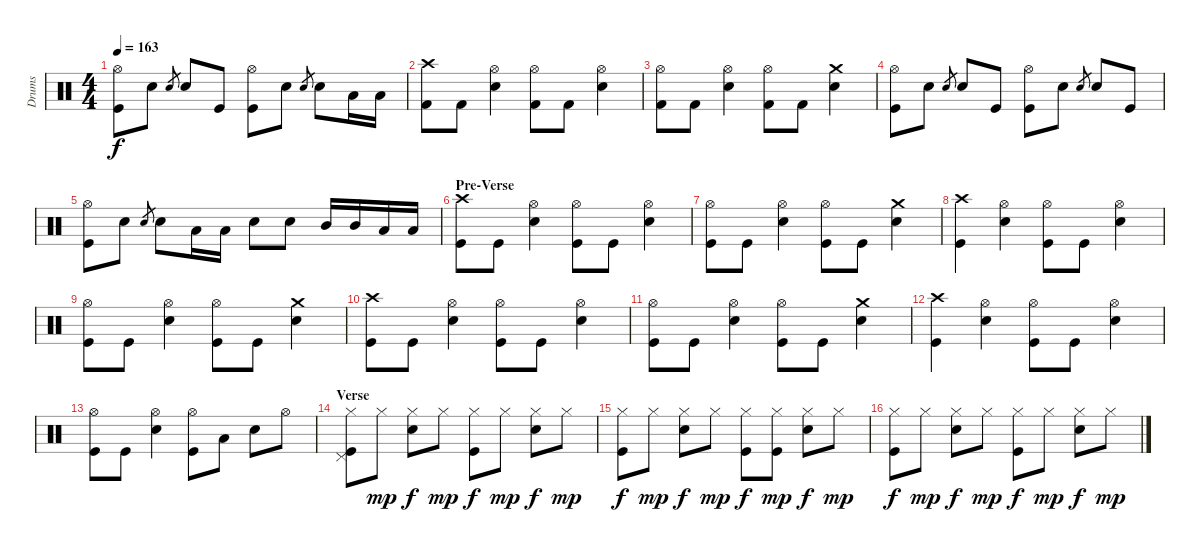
\track ("Drums" "Drums") {instrument percussion}
\staff {score}
\articulation defaults
\ts (4 4)
\tempo 163
\clef neutral
\ks c
("Hi-Hat (open)" "Kick (hit)").8{dy f} "Electric Snare (hit)".8 "Electric Snare (hit)".8{gr} "Electric Snare (hit)".8 "Kick (hit)".8 ("Hi-Hat (open)" "Kick (hit)").8 "Electric Snare (hit)".8 "Electric Snare (hit)".8{gr} "Electric Snare (hit)".8 "Low Tom (hit)".16 "Low Tom (hit)".16 |
("Crash high (hit)" "Kick (hit) 2").8 "Kick (hit) 2".8 ("Hi-Hat (open)" "Electric Snare (hit)").4 ("Hi-Hat (open)" "Kick (hit) 2").8 "Kick (hit) 2".8 ("Hi-Hat (open)" "Electric Snare (hit)").4 |
("Hi-Hat (open)" "Kick (hit) 2").8 "Kick (hit) 2".8 ("Hi-Hat (open)" "Electric Snare (hit)").4 ("Hi-Hat (open)" "Kick (hit) 2").8 "Kick (hit) 2".8 ("Crash medium (hit)" "Electric Snare (hit)").4 |
("Hi-Hat (open)" "Kick (hit)").8 "Electric Snare (hit)".8 "Electric Snare (hit)".8{gr} "Electric Snare (hit)".8 "Kick (hit)".8 ("Hi-Hat (open)" "Kick (hit)").8 "Electric Snare (hit)".8 "Electric Snare (hit)".8{gr} "Electric Snare (hit)".8 "Kick (hit)".8 |
("Hi-Hat (open)" "Kick (hit)").8 "Electric Snare (hit)".8 "Electric Snare (hit)".8{gr} "Electric Snare (hit)".8 "Low Tom (hit)".16 "Low Tom (hit)".16 "Electric Snare (hit)".8 "Electric Snare (hit)".8 "Mid Tom (hit)".16 "Mid Tom (hit)".16 "Low Tom (hit)".16 "Low Tom (hit)".16 |
\section ("" "Pre-Verse")
("Crash high (hit)" "Kick (hit)").8 "Kick (hit)".8 ("Hi-Hat (open)" "Electric Snare (hit)").4 ("Hi-Hat (open)" "Kick (hit)").8 "Kick (hit)".8 ("Hi-Hat (open)" "Electric Snare (hit)").4 |
("Hi-Hat (open)" "Kick (hit)").8 "Kick (hit)".8 ("Hi-Hat (open)" "Electric Snare (hit)").4 ("Hi-Hat (open)" "Kick (hit)").8 "Kick (hit)".8 ("Crash medium (hit)" "Electric Snare (hit)").4 |
("Crash high (hit)" "Kick (hit)").4 ("Hi-Hat (open)" "Electric Snare (hit)").4 ("Hi-Hat (open)" "Kick (hit)").8 "Kick (hit)".8 ("Hi-Hat (open)" "Electric Snare (hit)").4 |
("Hi-Hat (open)" "Kick (hit)").8 "Kick (hit)".8 ("Hi-Hat (open)" "Electric Snare (hit)").4 ("Hi-Hat (open)" "Kick (hit)").8 "Kick (hit)".8 ("Crash medium (hit)" "Electric Snare (hit)").4 |
("Crash high (hit)" "Kick (hit)").8 "Kick (hit)".8 ("Hi-Hat (open)" "Electric Snare (hit)").4 ("Hi-Hat (open)" "Kick (hit)").8 "Kick (hit)".8 ("Hi-Hat (open)" "Electric Snare (hit)").4 |
("Hi-Hat (open)" "Kick (hit)").8 "Kick (hit)".8 ("Hi-Hat (open)" "Electric Snare (hit)").4 ("Hi-Hat (open)" "Kick (hit)").8 "Kick (hit)".8 ("Crash medium (hit)" "Electric Snare (hit)").4 |
("Crash high (hit)" "Kick (hit)").4 ("Hi-Hat (open)" "Electric Snare (hit)").4 ("Hi-Hat (open)" "Kick (hit)").8 "Kick (hit)".8 ("Hi-Hat (open)" "Electric Snare (hit)").4 |
("Hi-Hat (open)" "Kick (hit)").8 "Kick (hit)".8 ("Hi-Hat (open)" "Electric Snare (hit)").4 ("Hi-Hat (open)" "Kick (hit)").8 "Low Tom (hit)".8 "Electric Snare (hit)".8 "Hi-Hat (open)".8 |
\section ("" "Verse")
("Hi-Hat (closed)" "Pedal Hi-Hat (hit)" "Kick (hit)").8 "Hi-Hat (closed)".8{dy mp} ("Hi-Hat (closed)" "Electric Snare (hit)").8{dy f} "Hi-Hat (closed)".8{dy mp} ("Hi-Hat (closed)" "Kick (hit)").8{dy f} "Hi-Hat (closed)".8{dy mp} ("Hi-Hat (closed)" "Electric Snare (hit)").8{dy f} "Hi-Hat (closed)".8{dy mp} |
("Hi-Hat (closed)" "Kick (hit)").8{dy f} "Hi-Hat (closed)".8{dy mp} ("Hi-Hat (closed)" "Electric Snare (hit)").8{dy f} "Hi-Hat (closed)".8{dy mp} ("Hi-Hat (closed)" "Kick (hit)").8{dy f} ("Hi-Hat (closed)" "Kick (hit)").8{dy mp} ("Hi-Hat (closed)" "Electric Snare (hit)").8{dy f} "Hi-Hat (closed)".8{dy mp} |
("Hi-Hat (closed)" "Kick (hit)").8{dy f} "Hi-Hat (closed)".8{dy mp} ("Hi-Hat (closed)" "Electric Snare (hit)").8{dy f} "Hi-Hat (closed)".8{dy mp} ("Hi-Hat (closed)" "Kick (hit)").8{dy f} "Hi-Hat (closed)".8{dy mp} ("Hi-Hat (closed)" "Electric Snare (hit)").8{dy f} "Hi-Hat (closed)".8{dy mp}
